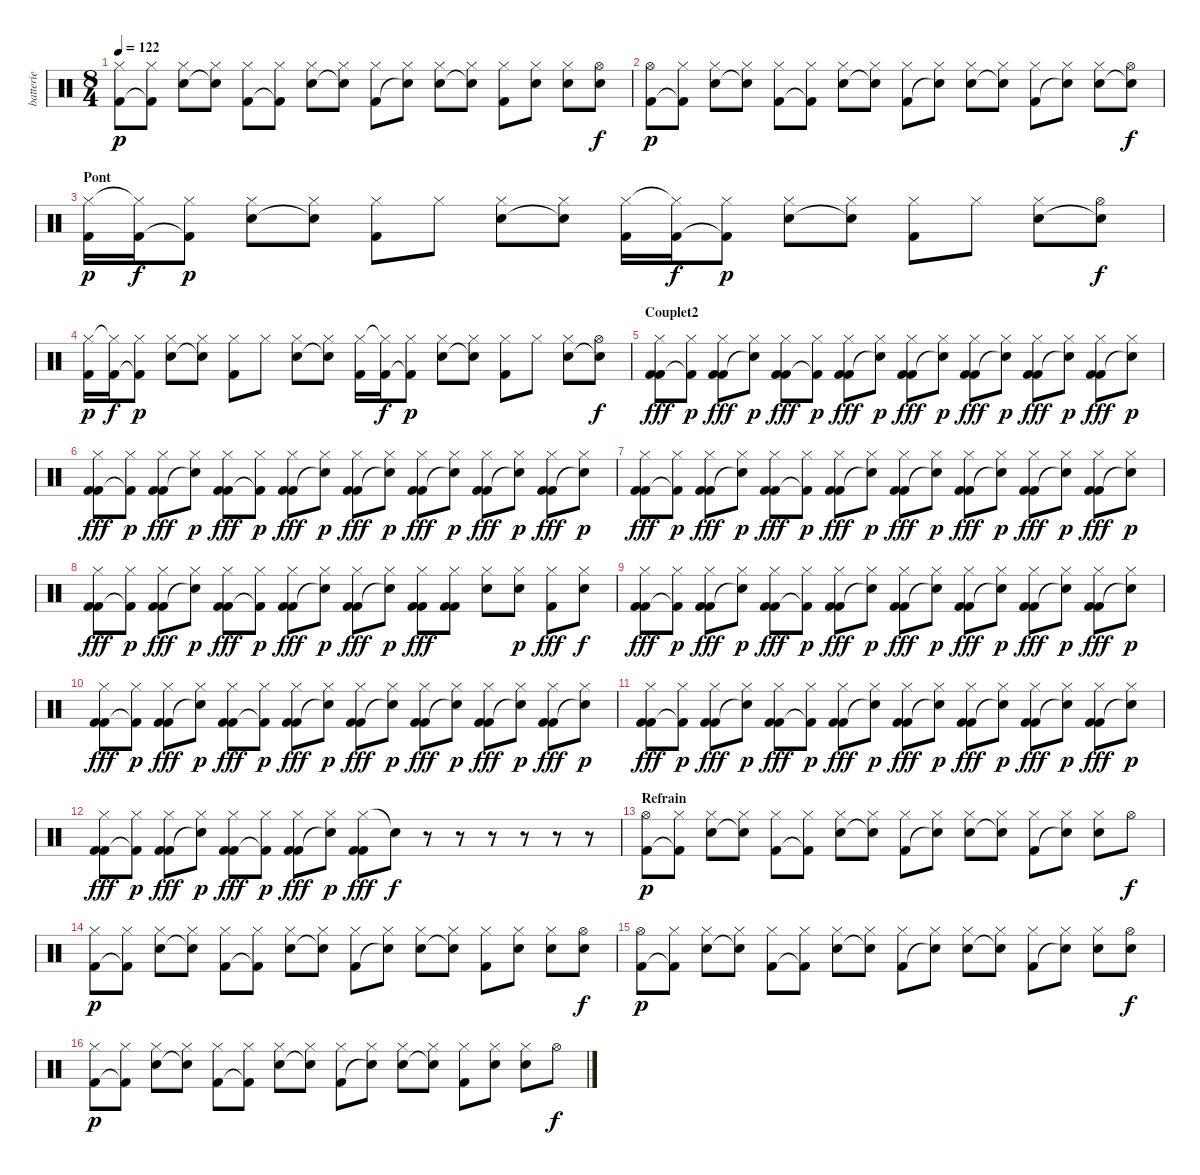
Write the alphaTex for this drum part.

\track ("batterie" "batterie") {instrument percussion}
\staff {score}
\articulation defaults
\ts (8 4)
\tempo 122
\clef neutral
\ks c
("Hi-Hat (closed)" "Kick (hit) 2").8{dy p} ("Hi-Hat (closed)" "Kick (hit) 2"{t}).8 ("Hi-Hat (closed)" "Snare (hit) 2").8 ("Hi-Hat (closed)" "Snare (hit) 2"{t}).8 ("Hi-Hat (closed)" "Kick (hit) 2").8 ("Hi-Hat (closed)" "Kick (hit) 2"{t}).8 ("Hi-Hat (closed)" "Snare (hit) 2").8 ("Hi-Hat (closed)" "Snare (hit) 2"{t}).8 ("Hi-Hat (closed)" "Kick (hit) 2").8 ("Hi-Hat (closed)" "Snare (hit)"{t}).8 ("Hi-Hat (closed)" "Snare (hit) 2").8 ("Hi-Hat (closed)" "Snare (hit)"{t}).8 ("Hi-Hat (closed)" "Kick (hit) 2").8 ("Hi-Hat (closed)" "Snare (hit) 2").8 ("Hi-Hat (closed)" "Snare (hit) 2").8 ("Hi-Hat (open)" "Snare (hit) 2").8{dy f} |
("Hi-Hat (open)" "Kick (hit) 2").8{dy p} ("Hi-Hat (closed)" "Kick (hit) 2"{t}).8 ("Hi-Hat (closed)" "Snare (hit) 2").8 ("Hi-Hat (closed)" "Snare (hit) 2"{t}).8 ("Hi-Hat (closed)" "Kick (hit) 2").8 ("Hi-Hat (closed)" "Kick (hit) 2"{t}).8 ("Hi-Hat (closed)" "Snare (hit) 2").8 ("Hi-Hat (closed)" "Snare (hit) 2"{t}).8 ("Hi-Hat (closed)" "Kick (hit) 2").8 ("Hi-Hat (closed)" "Snare (hit)"{t}).8 ("Hi-Hat (closed)" "Snare (hit) 2").8 ("Hi-Hat (closed)" "Snare (hit)"{t}).8 ("Hi-Hat (closed)" "Kick (hit) 2").8 ("Hi-Hat (closed)" "Snare (hit)"{t}).8 ("Hi-Hat (closed)" "Snare (hit) 2").8 ("Hi-Hat (open)" "Snare (hit) 2"{t}).8{dy f} |
\section ("" "Pont")
("Hi-Hat (closed)" "Kick (hit) 2").16{dy p} ("Hi-Hat (closed)"{t} "Kick (hit) 2").16{dy f} ("Hi-Hat (closed)" "Kick (hit) 2"{t}).8{dy p} ("Hi-Hat (closed)" "Snare (hit) 2").8 ("Hi-Hat (closed)" "Snare (hit) 2"{t}).8 ("Hi-Hat (closed)" "Kick (hit) 2").8 "Hi-Hat (closed)".8 ("Hi-Hat (closed)" "Snare (hit) 2").8 ("Hi-Hat (closed)" "Snare (hit) 2"{t}).8 ("Hi-Hat (closed)" "Kick (hit) 2").16 ("Hi-Hat (closed)"{t} "Kick (hit) 2").16{dy f} ("Hi-Hat (closed)" "Kick (hit) 2"{t}).8{dy p} ("Hi-Hat (closed)" "Snare (hit) 2").8 ("Hi-Hat (closed)" "Snare (hit)"{t}).8 ("Hi-Hat (closed)" "Kick (hit) 2").8 "Hi-Hat (closed)".8 ("Hi-Hat (closed)" "Snare (hit) 2").8 ("Hi-Hat (open)" "Snare (hit) 2"{t}).8{dy f} |
("Hi-Hat (closed)" "Kick (hit) 2").16{dy p} ("Hi-Hat (closed)"{t} "Kick (hit) 2").16{dy f} ("Hi-Hat (closed)" "Kick (hit) 2"{t}).8{dy p} ("Hi-Hat (closed)" "Snare (hit) 2").8 ("Hi-Hat (closed)" "Snare (hit) 2"{t}).8 ("Hi-Hat (closed)" "Kick (hit) 2").8 "Hi-Hat (closed)".8 ("Hi-Hat (closed)" "Snare (hit) 2").8 ("Hi-Hat (closed)" "Snare (hit) 2"{t}).8 ("Hi-Hat (closed)" "Kick (hit) 2").16 ("Hi-Hat (closed)"{t} "Kick (hit) 2").16{dy f} ("Hi-Hat (closed)" "Kick (hit) 2"{t}).8{dy p} ("Hi-Hat (closed)" "Snare (hit) 2").8 ("Hi-Hat (closed)" "Snare (hit)"{t}).8 ("Hi-Hat (closed)" "Kick (hit) 2").8 "Hi-Hat (closed)".8 ("Hi-Hat (closed)" "Snare (hit) 2").8 ("Hi-Hat (open)" "Snare (hit) 2"{t}).8{dy f} |
\section ("" "Couplet2")
("Hi-Hat (closed)" "Kick (hit) 2" "Kick (hit) 2").8{dy fff} ("Hi-Hat (closed)" "Kick (hit) 2"{t}).8{dy p} ("Hi-Hat (closed)" "Kick (hit) 2" "Kick (hit) 2").8{dy fff} ("Hi-Hat (closed)" "Snare (hit) 2"{t}).8{dy p} ("Hi-Hat (closed)" "Kick (hit) 2" "Kick (hit) 2").8{dy fff} ("Hi-Hat (closed)" "Kick (hit) 2"{t}).8{dy p} ("Hi-Hat (closed)" "Kick (hit) 2" "Kick (hit) 2").8{dy fff} ("Hi-Hat (closed)" "Snare (hit) 2"{t}).8{dy p} ("Hi-Hat (closed)" "Kick (hit) 2" "Kick (hit) 2").8{dy fff} ("Hi-Hat (closed)" "Snare (hit)"{t}).8{dy p} ("Hi-Hat (closed)" "Kick (hit) 2" "Kick (hit) 2").8{dy fff} ("Hi-Hat (closed)" "Snare (hit)"{t}).8{dy p} ("Hi-Hat (closed)" "Kick (hit) 2" "Kick (hit) 2").8{dy fff} ("Hi-Hat (closed)" "Snare (hit)"{t}).8{dy p} ("Hi-Hat (closed)" "Kick (hit) 2" "Kick (hit) 2").8{dy fff} ("Hi-Hat (closed)" "Snare (hit) 2"{t}).8{dy p} |
("Hi-Hat (closed)" "Kick (hit) 2" "Kick (hit) 2").8{dy fff} ("Hi-Hat (closed)" "Kick (hit) 2"{t}).8{dy p} ("Hi-Hat (closed)" "Kick (hit) 2" "Kick (hit) 2").8{dy fff} ("Hi-Hat (closed)" "Snare (hit) 2"{t}).8{dy p} ("Hi-Hat (closed)" "Kick (hit) 2" "Kick (hit) 2").8{dy fff} ("Hi-Hat (closed)" "Kick (hit) 2"{t}).8{dy p} ("Hi-Hat (closed)" "Kick (hit) 2" "Kick (hit) 2").8{dy fff} ("Hi-Hat (closed)" "Snare (hit) 2"{t}).8{dy p} ("Hi-Hat (closed)" "Kick (hit) 2" "Kick (hit) 2").8{dy fff} ("Hi-Hat (closed)" "Snare (hit)"{t}).8{dy p} ("Hi-Hat (closed)" "Kick (hit) 2" "Kick (hit) 2").8{dy fff} ("Hi-Hat (closed)" "Snare (hit)"{t}).8{dy p} ("Hi-Hat (closed)" "Kick (hit) 2" "Kick (hit) 2").8{dy fff} ("Hi-Hat (closed)" "Snare (hit)"{t}).8{dy p} ("Hi-Hat (closed)" "Kick (hit) 2" "Kick (hit) 2").8{dy fff} ("Hi-Hat (closed)" "Snare (hit) 2"{t}).8{dy p} |
("Hi-Hat (closed)" "Kick (hit) 2" "Kick (hit) 2").8{dy fff} ("Hi-Hat (closed)" "Kick (hit) 2"{t}).8{dy p} ("Hi-Hat (closed)" "Kick (hit) 2" "Kick (hit) 2").8{dy fff} ("Hi-Hat (closed)" "Snare (hit) 2"{t}).8{dy p} ("Hi-Hat (closed)" "Kick (hit) 2" "Kick (hit) 2").8{dy fff} ("Hi-Hat (closed)" "Kick (hit) 2"{t}).8{dy p} ("Hi-Hat (closed)" "Kick (hit) 2" "Kick (hit) 2").8{dy fff} ("Hi-Hat (closed)" "Snare (hit) 2"{t}).8{dy p} ("Hi-Hat (closed)" "Kick (hit) 2" "Kick (hit) 2").8{dy fff} ("Hi-Hat (closed)" "Snare (hit)"{t}).8{dy p} ("Hi-Hat (closed)" "Kick (hit) 2" "Kick (hit) 2").8{dy fff} ("Hi-Hat (closed)" "Snare (hit)"{t}).8{dy p} ("Hi-Hat (closed)" "Kick (hit) 2" "Kick (hit) 2").8{dy fff} ("Hi-Hat (closed)" "Snare (hit)"{t}).8{dy p} ("Hi-Hat (closed)" "Kick (hit) 2" "Kick (hit) 2").8{dy fff} ("Hi-Hat (closed)" "Snare (hit) 2"{t}).8{dy p} |
("Hi-Hat (closed)" "Kick (hit) 2" "Kick (hit) 2").8{dy fff} ("Hi-Hat (closed)" "Kick (hit) 2"{t}).8{dy p} ("Hi-Hat (closed)" "Kick (hit) 2" "Kick (hit) 2").8{dy fff} ("Hi-Hat (closed)" "Snare (hit) 2"{t}).8{dy p} ("Hi-Hat (closed)" "Kick (hit) 2" "Kick (hit) 2").8{dy fff} ("Hi-Hat (closed)" "Kick (hit) 2"{t}).8{dy p} ("Hi-Hat (closed)" "Kick (hit) 2" "Kick (hit) 2").8{dy fff} ("Hi-Hat (closed)" "Snare (hit) 2"{t}).8{dy p} ("Hi-Hat (closed)" "Kick (hit) 2" "Kick (hit) 2").8{dy fff} ("Hi-Hat (closed)" "Snare (hit)"{t}).8{dy p} ("Hi-Hat (closed)" "Kick (hit) 2" "Kick (hit) 2").8{dy fff} ("Hi-Hat (closed)" "Kick (hit) 2" "Kick (hit) 2").8 ("Hi-Hat (closed)" "Snare (hit) 2").8 ("Hi-Hat (closed)" "Snare (hit) 2").8{dy p} ("Hi-Hat (closed)" "Kick (hit) 2").8{dy fff} ("Hi-Hat (closed)" "Snare (hit) 2").8{dy f} |
("Hi-Hat (closed)" "Kick (hit) 2" "Kick (hit) 2").8{dy fff} ("Hi-Hat (closed)" "Kick (hit) 2"{t}).8{dy p} ("Hi-Hat (closed)" "Kick (hit) 2" "Kick (hit) 2").8{dy fff} ("Hi-Hat (closed)" "Snare (hit) 2"{t}).8{dy p} ("Hi-Hat (closed)" "Kick (hit) 2" "Kick (hit) 2").8{dy fff} ("Hi-Hat (closed)" "Kick (hit) 2"{t}).8{dy p} ("Hi-Hat (closed)" "Kick (hit) 2" "Kick (hit) 2").8{dy fff} ("Hi-Hat (closed)" "Snare (hit) 2"{t}).8{dy p} ("Hi-Hat (closed)" "Kick (hit) 2" "Kick (hit) 2").8{dy fff} ("Hi-Hat (closed)" "Snare (hit)"{t}).8{dy p} ("Hi-Hat (closed)" "Kick (hit) 2" "Kick (hit) 2").8{dy fff} ("Hi-Hat (closed)" "Snare (hit)"{t}).8{dy p} ("Hi-Hat (closed)" "Kick (hit) 2" "Kick (hit) 2").8{dy fff} ("Hi-Hat (closed)" "Snare (hit)"{t}).8{dy p} ("Hi-Hat (closed)" "Kick (hit) 2" "Kick (hit) 2").8{dy fff} ("Hi-Hat (closed)" "Snare (hit) 2"{t}).8{dy p} |
("Hi-Hat (closed)" "Kick (hit) 2" "Kick (hit) 2").8{dy fff} ("Hi-Hat (closed)" "Kick (hit) 2"{t}).8{dy p} ("Hi-Hat (closed)" "Kick (hit) 2" "Kick (hit) 2").8{dy fff} ("Hi-Hat (closed)" "Snare (hit) 2"{t}).8{dy p} ("Hi-Hat (closed)" "Kick (hit) 2" "Kick (hit) 2").8{dy fff} ("Hi-Hat (closed)" "Kick (hit) 2"{t}).8{dy p} ("Hi-Hat (closed)" "Kick (hit) 2" "Kick (hit) 2").8{dy fff} ("Hi-Hat (closed)" "Snare (hit) 2"{t}).8{dy p} ("Hi-Hat (closed)" "Kick (hit) 2" "Kick (hit) 2").8{dy fff} ("Hi-Hat (closed)" "Snare (hit)"{t}).8{dy p} ("Hi-Hat (closed)" "Kick (hit) 2" "Kick (hit) 2").8{dy fff} ("Hi-Hat (closed)" "Snare (hit)"{t}).8{dy p} ("Hi-Hat (closed)" "Kick (hit) 2" "Kick (hit) 2").8{dy fff} ("Hi-Hat (closed)" "Snare (hit)"{t}).8{dy p} ("Hi-Hat (closed)" "Kick (hit) 2" "Kick (hit) 2").8{dy fff} ("Hi-Hat (closed)" "Snare (hit) 2"{t}).8{dy p} |
("Hi-Hat (closed)" "Kick (hit) 2" "Kick (hit) 2").8{dy fff} ("Hi-Hat (closed)" "Kick (hit) 2"{t}).8{dy p} ("Hi-Hat (closed)" "Kick (hit) 2" "Kick (hit) 2").8{dy fff} ("Hi-Hat (closed)" "Snare (hit) 2"{t}).8{dy p} ("Hi-Hat (closed)" "Kick (hit) 2" "Kick (hit) 2").8{dy fff} ("Hi-Hat (closed)" "Kick (hit) 2"{t}).8{dy p} ("Hi-Hat (closed)" "Kick (hit) 2" "Kick (hit) 2").8{dy fff} ("Hi-Hat (closed)" "Snare (hit) 2"{t}).8{dy p} ("Hi-Hat (closed)" "Kick (hit) 2" "Kick (hit) 2").8{dy fff} ("Hi-Hat (closed)" "Snare (hit)"{t}).8{dy p} ("Hi-Hat (closed)" "Kick (hit) 2" "Kick (hit) 2").8{dy fff} ("Hi-Hat (closed)" "Snare (hit)"{t}).8{dy p} ("Hi-Hat (closed)" "Kick (hit) 2" "Kick (hit) 2").8{dy fff} ("Hi-Hat (closed)" "Snare (hit)"{t}).8{dy p} ("Hi-Hat (closed)" "Kick (hit) 2" "Kick (hit) 2").8{dy fff} ("Hi-Hat (closed)" "Snare (hit) 2"{t}).8{dy p} |
("Hi-Hat (closed)" "Kick (hit) 2" "Kick (hit) 2").8{dy fff} ("Hi-Hat (closed)" "Kick (hit) 2"{t}).8{dy p} ("Hi-Hat (closed)" "Kick (hit) 2" "Kick (hit) 2").8{dy fff} ("Hi-Hat (closed)" "Snare (hit) 2"{t}).8{dy p} ("Hi-Hat (closed)" "Kick (hit) 2" "Kick (hit) 2").8{dy fff} ("Hi-Hat (closed)" "Kick (hit) 2"{t}).8{dy p} ("Hi-Hat (closed)" "Kick (hit) 2" "Kick (hit) 2").8{dy fff} ("Hi-Hat (closed)" "Snare (hit) 2"{t}).8{dy p} ("Hi-Hat (closed)" "Kick (hit) 2" "Kick (hit) 2").8{dy fff} "Snare (hit)"{t}.8{dy f} r.8 r.8 r.8 r.8 r.8 r.8 |
\section ("" "Refrain")
("Hi-Hat (open)" "Kick (hit) 2").8{dy p} ("Hi-Hat (closed)" "Kick (hit) 2"{t}).8 ("Hi-Hat (closed)" "Snare (hit) 2").8 ("Hi-Hat (closed)" "Snare (hit) 2"{t}).8 ("Hi-Hat (closed)" "Kick (hit) 2").8 ("Hi-Hat (closed)" "Kick (hit) 2"{t}).8 ("Hi-Hat (closed)" "Snare (hit) 2").8 ("Hi-Hat (closed)" "Snare (hit) 2"{t}).8 ("Hi-Hat (closed)" "Kick (hit) 2").8 ("Hi-Hat (closed)" "Snare (hit)"{t}).8 ("Hi-Hat (closed)" "Snare (hit) 2").8 ("Hi-Hat (closed)" "Snare (hit)"{t}).8 ("Hi-Hat (closed)" "Kick (hit) 2").8 ("Hi-Hat (closed)" "Snare (hit)"{t}).8 ("Hi-Hat (closed)" "Snare (hit) 2").8 "Hi-Hat (open)".8{dy f} |
("Hi-Hat (closed)" "Kick (hit) 2").8{dy p} ("Hi-Hat (closed)" "Kick (hit) 2"{t}).8 ("Hi-Hat (closed)" "Snare (hit) 2").8 ("Hi-Hat (closed)" "Snare (hit) 2"{t}).8 ("Hi-Hat (closed)" "Kick (hit) 2").8 ("Hi-Hat (closed)" "Kick (hit) 2"{t}).8 ("Hi-Hat (closed)" "Snare (hit) 2").8 ("Hi-Hat (closed)" "Snare (hit) 2"{t}).8 ("Hi-Hat (closed)" "Kick (hit) 2").8 ("Hi-Hat (closed)" "Snare (hit)"{t}).8 ("Hi-Hat (closed)" "Snare (hit) 2").8 ("Hi-Hat (closed)" "Snare (hit)"{t}).8 ("Hi-Hat (closed)" "Kick (hit) 2").8 ("Hi-Hat (closed)" "Snare (hit) 2").8 ("Hi-Hat (closed)" "Snare (hit) 2").8 ("Hi-Hat (open)" "Snare (hit) 2").8{dy f} |
("Hi-Hat (open)" "Kick (hit) 2").8{dy p} ("Hi-Hat (closed)" "Kick (hit) 2"{t}).8 ("Hi-Hat (closed)" "Snare (hit) 2").8 ("Hi-Hat (closed)" "Snare (hit) 2"{t}).8 ("Hi-Hat (closed)" "Kick (hit) 2").8 ("Hi-Hat (closed)" "Kick (hit) 2"{t}).8 ("Hi-Hat (closed)" "Snare (hit) 2").8 ("Hi-Hat (closed)" "Snare (hit) 2"{t}).8 ("Hi-Hat (closed)" "Kick (hit) 2").8 ("Hi-Hat (closed)" "Snare (hit)"{t}).8 ("Hi-Hat (closed)" "Snare (hit) 2").8 ("Hi-Hat (closed)" "Snare (hit)"{t}).8 ("Hi-Hat (closed)" "Kick (hit) 2").8 ("Hi-Hat (closed)" "Snare (hit)"{t}).8 ("Hi-Hat (closed)" "Snare (hit) 2").8 ("Hi-Hat (open)" "Snare (hit) 2").8{dy f} |
("Hi-Hat (closed)" "Kick (hit) 2").8{dy p} ("Hi-Hat (closed)" "Kick (hit) 2"{t}).8 ("Hi-Hat (closed)" "Snare (hit) 2").8 ("Hi-Hat (closed)" "Snare (hit) 2"{t}).8 ("Hi-Hat (closed)" "Kick (hit) 2").8 ("Hi-Hat (closed)" "Kick (hit) 2"{t}).8 ("Hi-Hat (closed)" "Snare (hit) 2").8 ("Hi-Hat (closed)" "Snare (hit) 2"{t}).8 ("Hi-Hat (closed)" "Kick (hit) 2").8 ("Hi-Hat (closed)" "Snare (hit)"{t}).8 ("Hi-Hat (closed)" "Snare (hit) 2").8 ("Hi-Hat (closed)" "Snare (hit)"{t}).8 ("Hi-Hat (closed)" "Kick (hit) 2").8 ("Hi-Hat (closed)" "Snare (hit) 2").8 ("Hi-Hat (closed)" "Snare (hit) 2").8 "Hi-Hat (open)".8{dy f}
